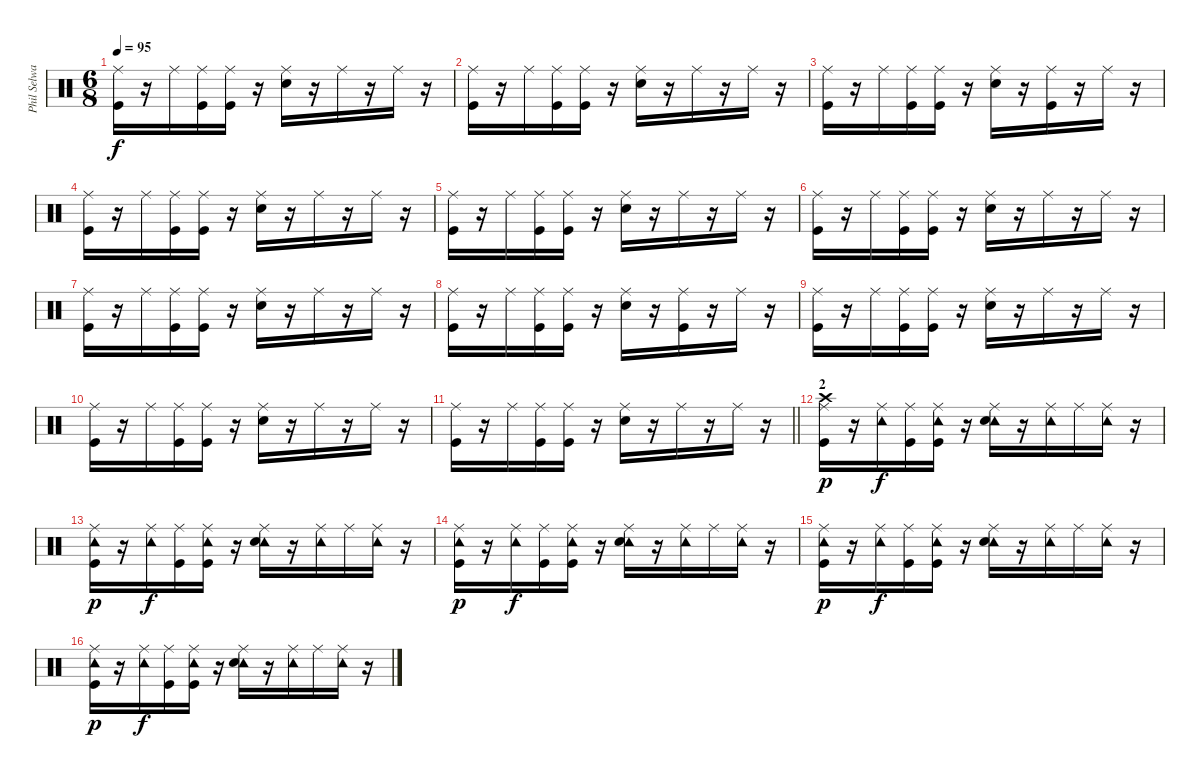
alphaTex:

\track ("Phil Selway (Percussions)" "Phil Selwa") {instrument percussion}
\staff {score}
\articulation defaults
\ts (6 8)
\tempo 95
\clef neutral
\ks c
("Ride (middle)" "Kick (hit)").16{dy f} r.16 "Ride (middle)".16 ("Ride (middle)" "Kick (hit)").16 ("Ride (middle)" "Kick (hit)").16 r.16 ("Ride (middle)" "Electric Snare (hit)").16 r.16 "Ride (middle)".16 r.16 "Ride (middle)".16 r.16 |
("Ride (middle)" "Kick (hit)").16 r.16 "Ride (middle)".16 ("Ride (middle)" "Kick (hit)").16 ("Ride (middle)" "Kick (hit)").16 r.16 ("Ride (middle)" "Electric Snare (hit)").16 r.16 "Ride (middle)".16 r.16 "Ride (middle)".16 r.16 |
("Ride (middle)" "Kick (hit)").16 r.16 "Ride (middle)".16 ("Ride (middle)" "Kick (hit)").16 ("Ride (middle)" "Kick (hit)").16 r.16 ("Ride (middle)" "Electric Snare (hit)").16 r.16 ("Ride (middle)" "Kick (hit)").16 r.16 "Ride (middle)".16 r.16 |
("Ride (middle)" "Kick (hit)").16 r.16 "Ride (middle)".16 ("Ride (middle)" "Kick (hit)").16 ("Ride (middle)" "Kick (hit)").16 r.16 ("Ride (middle)" "Electric Snare (hit)").16 r.16 "Ride (middle)".16 r.16 "Ride (middle)".16 r.16 |
("Ride (middle)" "Kick (hit)").16 r.16 "Ride (middle)".16 ("Ride (middle)" "Kick (hit)").16 ("Ride (middle)" "Kick (hit)").16 r.16 ("Ride (middle)" "Electric Snare (hit)").16 r.16 "Ride (middle)".16 r.16 "Ride (middle)".16 r.16 |
("Ride (middle)" "Kick (hit)").16 r.16 "Ride (middle)".16 ("Ride (middle)" "Kick (hit)").16 ("Ride (middle)" "Kick (hit)").16 r.16 ("Ride (middle)" "Electric Snare (hit)").16 r.16 "Ride (middle)".16 r.16 "Ride (middle)".16 r.16 |
("Ride (middle)" "Kick (hit)").16 r.16 "Ride (middle)".16 ("Ride (middle)" "Kick (hit)").16 ("Ride (middle)" "Kick (hit)").16 r.16 ("Ride (middle)" "Electric Snare (hit)").16 r.16 "Ride (middle)".16 r.16 "Ride (middle)".16 r.16 |
("Ride (middle)" "Kick (hit)").16 r.16 "Ride (middle)".16 ("Ride (middle)" "Kick (hit)").16 ("Ride (middle)" "Kick (hit)").16 r.16 ("Ride (middle)" "Electric Snare (hit)").16 r.16 ("Ride (middle)" "Kick (hit)").16 r.16 "Ride (middle)".16 r.16 |
("Ride (middle)" "Kick (hit)").16 r.16 "Ride (middle)".16 ("Ride (middle)" "Kick (hit)").16 ("Ride (middle)" "Kick (hit)").16 r.16 ("Ride (middle)" "Electric Snare (hit)").16 r.16 "Ride (middle)".16 r.16 "Ride (middle)".16 r.16 |
("Ride (middle)" "Kick (hit)").16 r.16 "Ride (middle)".16 ("Ride (middle)" "Kick (hit)").16 ("Ride (middle)" "Kick (hit)").16 r.16 ("Ride (middle)" "Electric Snare (hit)").16 r.16 "Ride (middle)".16 r.16 "Ride (middle)".16 r.16 |
\barLineRight lightlight
("Ride (middle)" "Kick (hit)").16 r.16 "Ride (middle)".16 ("Ride (middle)" "Kick (hit)").16 ("Ride (middle)" "Kick (hit)").16 r.16 ("Ride (middle)" "Electric Snare (hit)").16 r.16 "Ride (middle)".16 r.16 "Ride (middle)".16 r.16 |
\section ("" "2")
("Ride (middle)" "Crash high (hit)" "Kick (hit)").16{dy p} r.16 ("Ride (middle)" "Tambourine (hit)").16{dy f} ("Ride (middle)" "Kick (hit)").16 ("Ride (middle)" "Tambourine (hit)" "Kick (hit)").16 r.16 ("Ride (middle)" "Tambourine (hit)" "Electric Snare (hit)").16 r.16 ("Ride (middle)" "Tambourine (hit)").16 "Ride (middle)".16 ("Ride (middle)" "Tambourine (hit)").16 r.16 |
("Ride (middle)" "Tambourine (hit)" "Kick (hit)").16{dy p} r.16 ("Ride (middle)" "Tambourine (hit)").16{dy f} ("Ride (middle)" "Kick (hit)").16 ("Ride (middle)" "Tambourine (hit)" "Kick (hit)").16 r.16 ("Ride (middle)" "Tambourine (hit)" "Electric Snare (hit)").16 r.16 ("Ride (middle)" "Tambourine (hit)").16 "Ride (middle)".16 ("Ride (middle)" "Tambourine (hit)").16 r.16 |
("Ride (middle)" "Tambourine (hit)" "Kick (hit)").16{dy p} r.16 ("Ride (middle)" "Tambourine (hit)").16{dy f} ("Ride (middle)" "Kick (hit)").16 ("Ride (middle)" "Tambourine (hit)" "Kick (hit)").16 r.16 ("Ride (middle)" "Tambourine (hit)" "Electric Snare (hit)").16 r.16 ("Ride (middle)" "Tambourine (hit)").16 "Ride (middle)".16 ("Ride (middle)" "Tambourine (hit)").16 r.16 |
("Ride (middle)" "Tambourine (hit)" "Kick (hit)").16{dy p} r.16 ("Ride (middle)" "Tambourine (hit)").16{dy f} ("Ride (middle)" "Kick (hit)").16 ("Ride (middle)" "Tambourine (hit)" "Kick (hit)").16 r.16 ("Ride (middle)" "Tambourine (hit)" "Electric Snare (hit)").16 r.16 ("Ride (middle)" "Tambourine (hit)").16 "Ride (middle)".16 ("Ride (middle)" "Tambourine (hit)").16 r.16 |
("Ride (middle)" "Tambourine (hit)" "Kick (hit)").16{dy p} r.16 ("Ride (middle)" "Tambourine (hit)").16{dy f} ("Ride (middle)" "Kick (hit)").16 ("Ride (middle)" "Tambourine (hit)" "Kick (hit)").16 r.16 ("Ride (middle)" "Tambourine (hit)" "Electric Snare (hit)").16 r.16 ("Ride (middle)" "Tambourine (hit)").16 "Ride (middle)".16 ("Ride (middle)" "Tambourine (hit)").16 r.16
